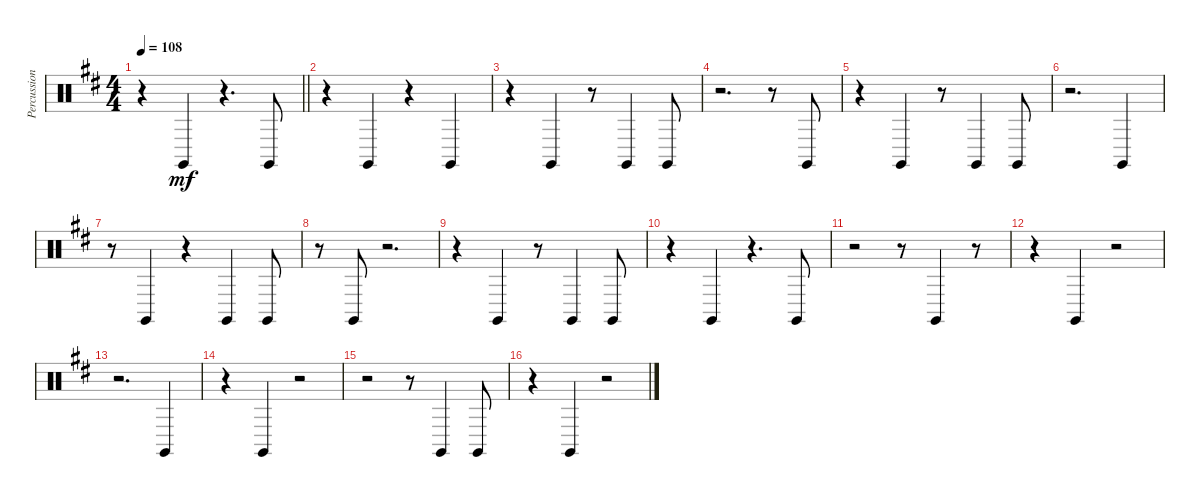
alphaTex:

\track ("Percussion" "Percussion") {instrument percussion}
\staff {score}
\articulation defaults
\ts (4 4)
\tempo 108
\clef neutral
\barLineRight lightlight
\ks bminor
r.4{dy mf} "Claves (hit)".4 r.4{d} "Claves (hit)".8 |
r.4 "Claves (hit)".4 r.4 "Claves (hit)".4 |
r.4 "Claves (hit)".4 r.8 "Claves (hit)".4 "Claves (hit)".8 |
r.2{d} r.8 "Claves (hit)".8 |
r.4 "Claves (hit)".4 r.8 "Claves (hit)".4 "Claves (hit)".8 |
r.2{d} "Claves (hit)".4 |
r.8 "Claves (hit)".4 r.4 "Claves (hit)".4 "Claves (hit)".8 |
r.8 "Claves (hit)".8 r.2{d} |
r.4 "Claves (hit)".4 r.8 "Claves (hit)".4 "Claves (hit)".8 |
r.4 "Claves (hit)".4 r.4{d} "Claves (hit)".8 |
r.2 r.8 "Claves (hit)".4 r.8 |
r.4 "Claves (hit)".4 r.2 |
r.2{d} "Claves (hit)".4 |
r.4 "Claves (hit)".4 r.2 |
r.2 r.8 "Claves (hit)".4 "Claves (hit)".8 |
r.4 "Claves (hit)".4 r.2
